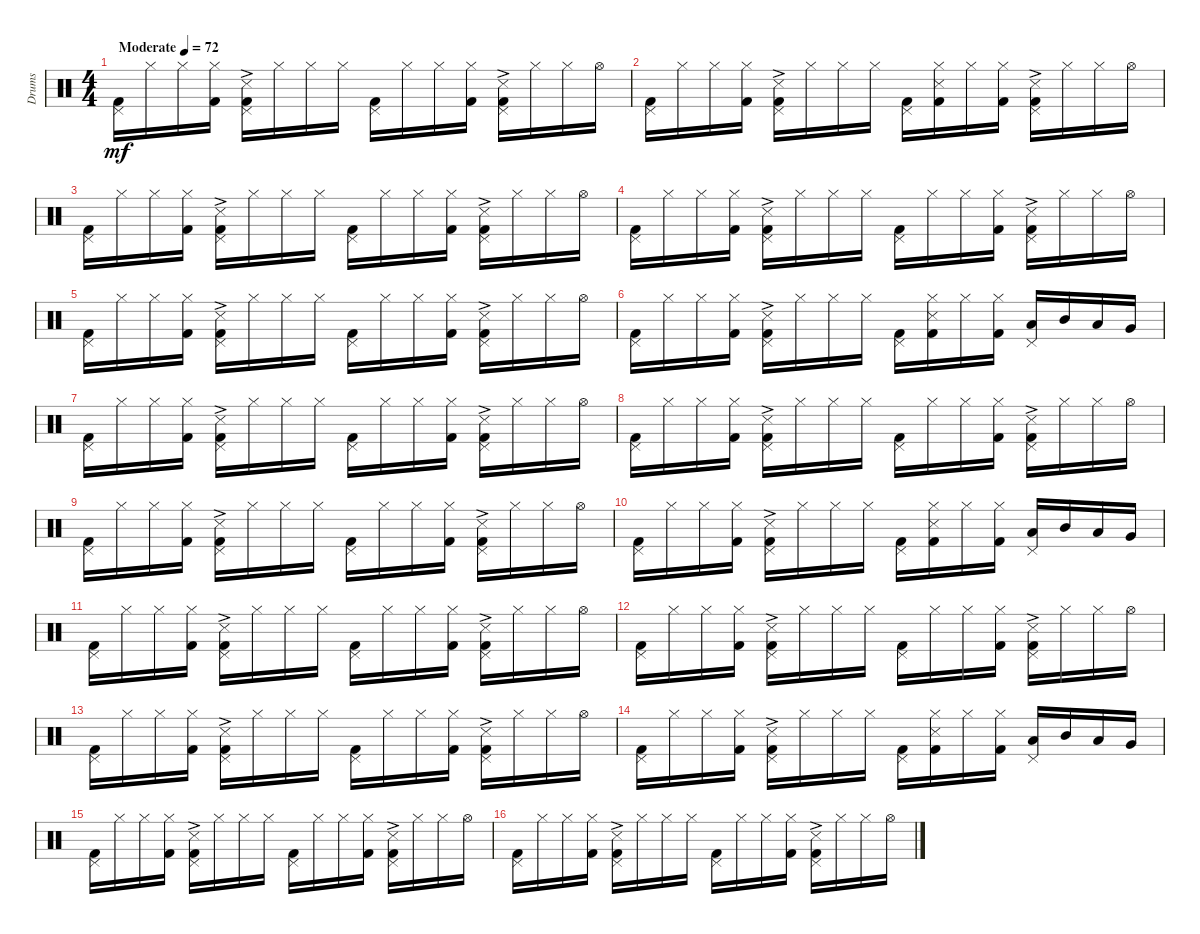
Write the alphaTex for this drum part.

\track ("Drums" "Drums") {instrument percussion}
\staff {score}
\articulation defaults
\ts (4 4)
\tempo (72 "Moderate")
\clef neutral
\ks c
("Pedal Hi-Hat (hit)" "Kick (hit) 2").16{dy mf} "Hi-Hat (closed)".16 "Hi-Hat (closed)".16 ("Hi-Hat (closed)" "Kick (hit) 2").16 ("Pedal Hi-Hat (hit)" "Snare (side stick) 3"{ac} "Kick (hit) 2").16 "Hi-Hat (closed)".16 "Hi-Hat (closed)".16 "Hi-Hat (closed)".16 ("Pedal Hi-Hat (hit)" "Kick (hit) 2").16 "Hi-Hat (closed)".16 "Hi-Hat (closed)".16 ("Hi-Hat (closed)" "Kick (hit) 2").16 ("Pedal Hi-Hat (hit)" "Snare (side stick) 3"{ac} "Kick (hit) 2").16 "Hi-Hat (closed)".16 "Hi-Hat (closed)".16 "Hi-Hat (open)".16 |
("Pedal Hi-Hat (hit)" "Kick (hit) 2").16 "Hi-Hat (closed)".16 "Hi-Hat (closed)".16 ("Hi-Hat (closed)" "Kick (hit) 2").16 ("Pedal Hi-Hat (hit)" "Snare (side stick) 3"{ac} "Kick (hit) 2").16 "Hi-Hat (closed)".16 "Hi-Hat (closed)".16 "Hi-Hat (closed)".16 ("Pedal Hi-Hat (hit)" "Kick (hit) 2").16 ("Hi-Hat (closed)" "Snare (side stick) 3" "Kick (hit) 2").16 "Hi-Hat (closed)".16 ("Hi-Hat (closed)" "Kick (hit) 2").16 ("Pedal Hi-Hat (hit)" "Snare (side stick) 3"{ac} "Kick (hit) 2").16 "Hi-Hat (closed)".16 "Hi-Hat (closed)".16 "Hi-Hat (open)".16 |
("Pedal Hi-Hat (hit)" "Kick (hit) 2").16 "Hi-Hat (closed)".16 "Hi-Hat (closed)".16 ("Hi-Hat (closed)" "Kick (hit) 2").16 ("Pedal Hi-Hat (hit)" "Snare (side stick) 3"{ac} "Kick (hit) 2").16 "Hi-Hat (closed)".16 "Hi-Hat (closed)".16 "Hi-Hat (closed)".16 ("Pedal Hi-Hat (hit)" "Kick (hit) 2").16 "Hi-Hat (closed)".16 "Hi-Hat (closed)".16 ("Hi-Hat (closed)" "Kick (hit) 2").16 ("Pedal Hi-Hat (hit)" "Snare (side stick) 3"{ac} "Kick (hit) 2").16 "Hi-Hat (closed)".16 "Hi-Hat (closed)".16 "Hi-Hat (open)".16 |
("Pedal Hi-Hat (hit)" "Kick (hit) 2").16 "Hi-Hat (closed)".16 "Hi-Hat (closed)".16 ("Hi-Hat (closed)" "Kick (hit) 2").16 ("Pedal Hi-Hat (hit)" "Snare (side stick) 3"{ac} "Kick (hit) 2").16 "Hi-Hat (closed)".16 "Hi-Hat (closed)".16 "Hi-Hat (closed)".16 ("Pedal Hi-Hat (hit)" "Kick (hit) 2").16 "Hi-Hat (closed)".16 "Hi-Hat (closed)".16 ("Hi-Hat (closed)" "Kick (hit) 2").16 ("Pedal Hi-Hat (hit)" "Snare (side stick) 3"{ac} "Kick (hit) 2").16 "Hi-Hat (closed)".16 "Hi-Hat (closed)".16 "Hi-Hat (open)".16 |
("Pedal Hi-Hat (hit)" "Kick (hit) 2").16 "Hi-Hat (closed)".16 "Hi-Hat (closed)".16 ("Hi-Hat (closed)" "Kick (hit) 2").16 ("Pedal Hi-Hat (hit)" "Snare (side stick) 3"{ac} "Kick (hit) 2").16 "Hi-Hat (closed)".16 "Hi-Hat (closed)".16 "Hi-Hat (closed)".16 ("Pedal Hi-Hat (hit)" "Kick (hit) 2").16 "Hi-Hat (closed)".16 "Hi-Hat (closed)".16 ("Hi-Hat (closed)" "Kick (hit) 2").16 ("Pedal Hi-Hat (hit)" "Snare (side stick) 3"{ac} "Kick (hit) 2").16 "Hi-Hat (closed)".16 "Hi-Hat (closed)".16 "Hi-Hat (open)".16 |
("Pedal Hi-Hat (hit)" "Kick (hit) 2").16 "Hi-Hat (closed)".16 "Hi-Hat (closed)".16 ("Hi-Hat (closed)" "Kick (hit) 2").16 ("Pedal Hi-Hat (hit)" "Snare (side stick) 3"{ac} "Kick (hit) 2").16 "Hi-Hat (closed)".16 "Hi-Hat (closed)".16 "Hi-Hat (closed)".16 ("Pedal Hi-Hat (hit)" "Kick (hit) 2").16 ("Hi-Hat (closed)" "Snare (side stick) 3" "Kick (hit) 2").16 "Hi-Hat (closed)".16 ("Hi-Hat (closed)" "Kick (hit) 2").16 ("Pedal Hi-Hat (hit)" "Low Tom (hit)").16 "Mid Tom (hit)".16 "Low Tom (hit)".16 "Very Low Tom (hit)".16 |
("Pedal Hi-Hat (hit)" "Kick (hit) 2").16 "Hi-Hat (closed)".16 "Hi-Hat (closed)".16 ("Hi-Hat (closed)" "Kick (hit) 2").16 ("Pedal Hi-Hat (hit)" "Snare (side stick) 3"{ac} "Kick (hit) 2").16 "Hi-Hat (closed)".16 "Hi-Hat (closed)".16 "Hi-Hat (closed)".16 ("Pedal Hi-Hat (hit)" "Kick (hit) 2").16 "Hi-Hat (closed)".16 "Hi-Hat (closed)".16 ("Hi-Hat (closed)" "Kick (hit) 2").16 ("Pedal Hi-Hat (hit)" "Snare (side stick) 3"{ac} "Kick (hit) 2").16 "Hi-Hat (closed)".16 "Hi-Hat (closed)".16 "Hi-Hat (open)".16 |
("Pedal Hi-Hat (hit)" "Kick (hit) 2").16 "Hi-Hat (closed)".16 "Hi-Hat (closed)".16 ("Hi-Hat (closed)" "Kick (hit) 2").16 ("Pedal Hi-Hat (hit)" "Snare (side stick) 3"{ac} "Kick (hit) 2").16 "Hi-Hat (closed)".16 "Hi-Hat (closed)".16 "Hi-Hat (closed)".16 ("Pedal Hi-Hat (hit)" "Kick (hit) 2").16 "Hi-Hat (closed)".16 "Hi-Hat (closed)".16 ("Hi-Hat (closed)" "Kick (hit) 2").16 ("Pedal Hi-Hat (hit)" "Snare (side stick) 3"{ac} "Kick (hit) 2").16 "Hi-Hat (closed)".16 "Hi-Hat (closed)".16 "Hi-Hat (open)".16 |
("Pedal Hi-Hat (hit)" "Kick (hit) 2").16 "Hi-Hat (closed)".16 "Hi-Hat (closed)".16 ("Hi-Hat (closed)" "Kick (hit) 2").16 ("Pedal Hi-Hat (hit)" "Snare (side stick) 3"{ac} "Kick (hit) 2").16 "Hi-Hat (closed)".16 "Hi-Hat (closed)".16 "Hi-Hat (closed)".16 ("Pedal Hi-Hat (hit)" "Kick (hit) 2").16 "Hi-Hat (closed)".16 "Hi-Hat (closed)".16 ("Hi-Hat (closed)" "Kick (hit) 2").16 ("Pedal Hi-Hat (hit)" "Snare (side stick) 3"{ac} "Kick (hit) 2").16 "Hi-Hat (closed)".16 "Hi-Hat (closed)".16 "Hi-Hat (open)".16 |
("Pedal Hi-Hat (hit)" "Kick (hit) 2").16 "Hi-Hat (closed)".16 "Hi-Hat (closed)".16 ("Hi-Hat (closed)" "Kick (hit) 2").16 ("Pedal Hi-Hat (hit)" "Snare (side stick) 3"{ac} "Kick (hit) 2").16 "Hi-Hat (closed)".16 "Hi-Hat (closed)".16 "Hi-Hat (closed)".16 ("Pedal Hi-Hat (hit)" "Kick (hit) 2").16 ("Hi-Hat (closed)" "Snare (side stick) 3" "Kick (hit) 2").16 "Hi-Hat (closed)".16 ("Hi-Hat (closed)" "Kick (hit) 2").16 ("Pedal Hi-Hat (hit)" "Low Tom (hit)").16 "Mid Tom (hit)".16 "Low Tom (hit)".16 "Very Low Tom (hit)".16 |
("Pedal Hi-Hat (hit)" "Kick (hit) 2").16 "Hi-Hat (closed)".16 "Hi-Hat (closed)".16 ("Hi-Hat (closed)" "Kick (hit) 2").16 ("Pedal Hi-Hat (hit)" "Snare (side stick) 3"{ac} "Kick (hit) 2").16 "Hi-Hat (closed)".16 "Hi-Hat (closed)".16 "Hi-Hat (closed)".16 ("Pedal Hi-Hat (hit)" "Kick (hit) 2").16 "Hi-Hat (closed)".16 "Hi-Hat (closed)".16 ("Hi-Hat (closed)" "Kick (hit) 2").16 ("Pedal Hi-Hat (hit)" "Snare (side stick) 3"{ac} "Kick (hit) 2").16 "Hi-Hat (closed)".16 "Hi-Hat (closed)".16 "Hi-Hat (open)".16 |
("Pedal Hi-Hat (hit)" "Kick (hit) 2").16 "Hi-Hat (closed)".16 "Hi-Hat (closed)".16 ("Hi-Hat (closed)" "Kick (hit) 2").16 ("Pedal Hi-Hat (hit)" "Snare (side stick) 3"{ac} "Kick (hit) 2").16 "Hi-Hat (closed)".16 "Hi-Hat (closed)".16 "Hi-Hat (closed)".16 ("Pedal Hi-Hat (hit)" "Kick (hit) 2").16 "Hi-Hat (closed)".16 "Hi-Hat (closed)".16 ("Hi-Hat (closed)" "Kick (hit) 2").16 ("Pedal Hi-Hat (hit)" "Snare (side stick) 3"{ac} "Kick (hit) 2").16 "Hi-Hat (closed)".16 "Hi-Hat (closed)".16 "Hi-Hat (open)".16 |
("Pedal Hi-Hat (hit)" "Kick (hit) 2").16 "Hi-Hat (closed)".16 "Hi-Hat (closed)".16 ("Hi-Hat (closed)" "Kick (hit) 2").16 ("Pedal Hi-Hat (hit)" "Snare (side stick) 3"{ac} "Kick (hit) 2").16 "Hi-Hat (closed)".16 "Hi-Hat (closed)".16 "Hi-Hat (closed)".16 ("Pedal Hi-Hat (hit)" "Kick (hit) 2").16 "Hi-Hat (closed)".16 "Hi-Hat (closed)".16 ("Hi-Hat (closed)" "Kick (hit) 2").16 ("Pedal Hi-Hat (hit)" "Snare (side stick) 3"{ac} "Kick (hit) 2").16 "Hi-Hat (closed)".16 "Hi-Hat (closed)".16 "Hi-Hat (open)".16 |
("Pedal Hi-Hat (hit)" "Kick (hit) 2").16 "Hi-Hat (closed)".16 "Hi-Hat (closed)".16 ("Hi-Hat (closed)" "Kick (hit) 2").16 ("Pedal Hi-Hat (hit)" "Snare (side stick) 3"{ac} "Kick (hit) 2").16 "Hi-Hat (closed)".16 "Hi-Hat (closed)".16 "Hi-Hat (closed)".16 ("Pedal Hi-Hat (hit)" "Kick (hit) 2").16 ("Hi-Hat (closed)" "Snare (side stick) 3" "Kick (hit) 2").16 "Hi-Hat (closed)".16 ("Hi-Hat (closed)" "Kick (hit) 2").16 ("Pedal Hi-Hat (hit)" "Low Tom (hit)").16 "Mid Tom (hit)".16 "Low Tom (hit)".16 "Very Low Tom (hit)".16 |
("Pedal Hi-Hat (hit)" "Kick (hit) 2").16 "Hi-Hat (closed)".16 "Hi-Hat (closed)".16 ("Hi-Hat (closed)" "Kick (hit) 2").16 ("Pedal Hi-Hat (hit)" "Snare (side stick) 3"{ac} "Kick (hit) 2").16 "Hi-Hat (closed)".16 "Hi-Hat (closed)".16 "Hi-Hat (closed)".16 ("Pedal Hi-Hat (hit)" "Kick (hit) 2").16 "Hi-Hat (closed)".16 "Hi-Hat (closed)".16 ("Hi-Hat (closed)" "Kick (hit) 2").16 ("Pedal Hi-Hat (hit)" "Snare (side stick) 3"{ac} "Kick (hit) 2").16 "Hi-Hat (closed)".16 "Hi-Hat (closed)".16 "Hi-Hat (open)".16 |
("Pedal Hi-Hat (hit)" "Kick (hit) 2").16 "Hi-Hat (closed)".16 "Hi-Hat (closed)".16 ("Hi-Hat (closed)" "Kick (hit) 2").16 ("Pedal Hi-Hat (hit)" "Snare (side stick) 3"{ac} "Kick (hit) 2").16 "Hi-Hat (closed)".16 "Hi-Hat (closed)".16 "Hi-Hat (closed)".16 ("Pedal Hi-Hat (hit)" "Kick (hit) 2").16 "Hi-Hat (closed)".16 "Hi-Hat (closed)".16 ("Hi-Hat (closed)" "Kick (hit) 2").16 ("Pedal Hi-Hat (hit)" "Snare (side stick) 3"{ac} "Kick (hit) 2").16 "Hi-Hat (closed)".16 "Hi-Hat (closed)".16 "Hi-Hat (open)".16
